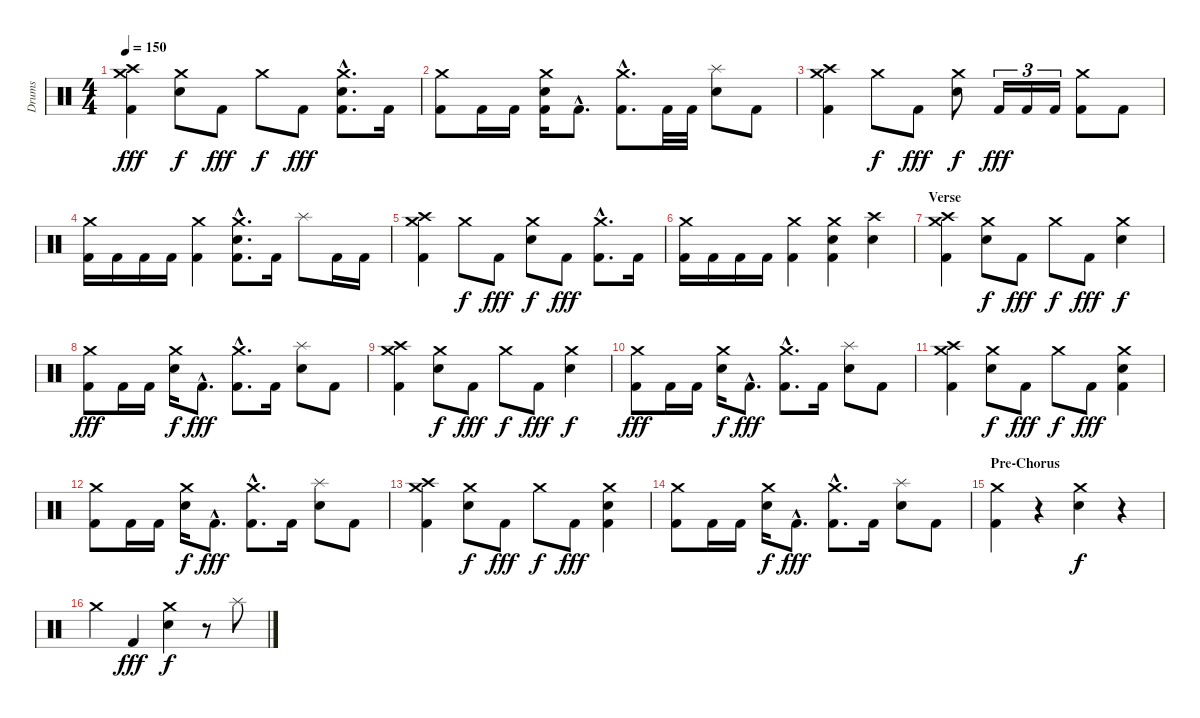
\track ("Drums" "Drums") {instrument percussion}
\staff {score}
\articulation defaults
\ts (4 4)
\tempo 150
\clef neutral
\ks c
("Crash medium (hit)" "Crash high (hit)" "Kick (hit) 2").4{dy fff} ("Crash medium (hit)" "Snare (hit) 2").8{dy f} "Kick (hit) 2".8{dy fff} "Crash medium (hit)".8{dy f} "Kick (hit) 2".8{dy fff} ("Crash medium (hit)"{hac} "Snare (hit) 2"{hac} "Kick (hit) 2"{hac}).8{d} "Kick (hit) 2".16 |
("Crash medium (hit)" "Kick (hit) 2").8 "Kick (hit) 2".16 "Kick (hit) 2".16 ("Crash medium (hit)" "Snare (hit) 2" "Kick (hit) 2").16 "Kick (hit) 2"{hac}.8{d} ("Crash medium (hit)"{hac} "Kick (hit) 2"{hac}).8{d} "Kick (hit) 2".32 "Kick (hit) 2".32 ("Splash (hit)" "Snare (hit) 2").8 "Kick (hit) 2".8 |
("Crash medium (hit)" "Crash high (hit)" "Kick (hit) 2").4 "Crash medium (hit)".8{dy f} "Kick (hit) 2".8{dy fff} ("Crash medium (hit)" "Snare (hit) 2").8{dy f} "Kick (hit) 2".16{tu (3 2) dy fff} "Kick (hit) 2".16{tu (3 2)} "Kick (hit) 2".16{tu (3 2)} ("Crash medium (hit)" "Kick (hit) 2").8 "Kick (hit) 2".8 |
("Crash medium (hit)" "Kick (hit) 2").16 "Kick (hit) 2".16 "Kick (hit) 2".16 "Kick (hit) 2".16 ("Crash medium (hit)" "Kick (hit) 2").4 ("Crash medium (hit)"{hac} "Snare (hit) 2"{hac} "Kick (hit) 2"{hac}).8{d} "Kick (hit) 2".16 "Splash (hit)".8 "Kick (hit) 2".16 "Kick (hit) 2".16 |
("Crash medium (hit)" "Crash high (hit)" "Kick (hit) 2").4 "Crash medium (hit)".8{dy f} "Kick (hit) 2".8{dy fff} ("Crash medium (hit)" "Snare (hit) 2").8{dy f} "Kick (hit) 2".8{dy fff} ("Crash medium (hit)"{hac} "Kick (hit) 2"{hac}).8{d} "Kick (hit) 2".16 |
("Crash medium (hit)" "Kick (hit) 2").16 "Kick (hit) 2".16 "Kick (hit) 2".16 "Kick (hit) 2".16 ("Crash medium (hit)" "Kick (hit) 2").4 ("Crash medium (hit)" "Snare (hit) 2" "Kick (hit) 2").4 ("Crash high (hit)" "Snare (hit) 2").4 |
\section ("" "Verse")
("Crash medium (hit)" "Crash high (hit)" "Kick (hit) 2").4 ("Crash medium (hit)" "Snare (hit) 2").8{dy f} "Kick (hit) 2".8{dy fff} "Crash medium (hit)".8{dy f} "Kick (hit) 2".8{dy fff} ("Crash medium (hit)" "Snare (hit) 2").4{dy f} |
("Crash medium (hit)" "Kick (hit) 2").8{dy fff} "Kick (hit) 2".16 "Kick (hit) 2".16 ("Crash medium (hit)" "Snare (hit) 2").16{dy f} "Kick (hit) 2"{hac}.8{d dy fff} ("Crash medium (hit)"{hac} "Kick (hit) 2"{hac}).8{d} "Kick (hit) 2".16 ("Splash (hit)" "Snare (hit) 2").8 "Kick (hit) 2".8 |
("Crash medium (hit)" "Crash high (hit)" "Kick (hit) 2").4 ("Crash medium (hit)" "Snare (hit) 2").8{dy f} "Kick (hit) 2".8{dy fff} "Crash medium (hit)".8{dy f} "Kick (hit) 2".8{dy fff} ("Crash medium (hit)" "Snare (hit) 2").4{dy f} |
("Crash medium (hit)" "Kick (hit) 2").8{dy fff} "Kick (hit) 2".16 "Kick (hit) 2".16 ("Crash medium (hit)" "Snare (hit) 2").16{dy f} "Kick (hit) 2"{hac}.8{d dy fff} ("Crash medium (hit)"{hac} "Kick (hit) 2"{hac}).8{d} "Kick (hit) 2".16 ("Splash (hit)" "Snare (hit) 2").8 "Kick (hit) 2".8 |
("Crash medium (hit)" "Crash high (hit)" "Kick (hit) 2").4 ("Crash medium (hit)" "Snare (hit) 2").8{dy f} "Kick (hit) 2".8{dy fff} "Crash medium (hit)".8{dy f} "Kick (hit) 2".8{dy fff} ("Crash medium (hit)" "Snare (hit) 2" "Kick (hit) 2").4 |
("Crash medium (hit)" "Kick (hit) 2").8 "Kick (hit) 2".16 "Kick (hit) 2".16 ("Crash medium (hit)" "Snare (hit) 2").16{dy f} "Kick (hit) 2"{hac}.8{d dy fff} ("Crash medium (hit)"{hac} "Kick (hit) 2"{hac}).8{d} "Kick (hit) 2".16 ("Splash (hit)" "Snare (hit) 2").8 "Kick (hit) 2".8 |
("Crash medium (hit)" "Crash high (hit)" "Kick (hit) 2").4 ("Crash medium (hit)" "Snare (hit) 2").8{dy f} "Kick (hit) 2".8{dy fff} "Crash medium (hit)".8{dy f} "Kick (hit) 2".8{dy fff} ("Crash medium (hit)" "Snare (hit) 2" "Kick (hit) 2").4 |
("Crash medium (hit)" "Kick (hit) 2").8 "Kick (hit) 2".16 "Kick (hit) 2".16 ("Crash medium (hit)" "Snare (hit) 2").16{dy f} "Kick (hit) 2"{hac}.8{d dy fff} ("Crash medium (hit)"{hac} "Kick (hit) 2"{hac}).8{d} "Kick (hit) 2".16 ("Splash (hit)" "Snare (hit) 2").8 "Kick (hit) 2".8 |
\section ("" "Pre-Chorus")
("Crash medium (hit)" "Kick (hit) 2").4 r.4 ("Crash medium (hit)" "Snare (hit) 2").4{dy f} r.4 |
"Crash medium (hit)".4 "Kick (hit) 2".4{dy fff} ("Crash medium (hit)" "Snare (hit) 2").4{dy f} r.8 "Splash (hit)".8
